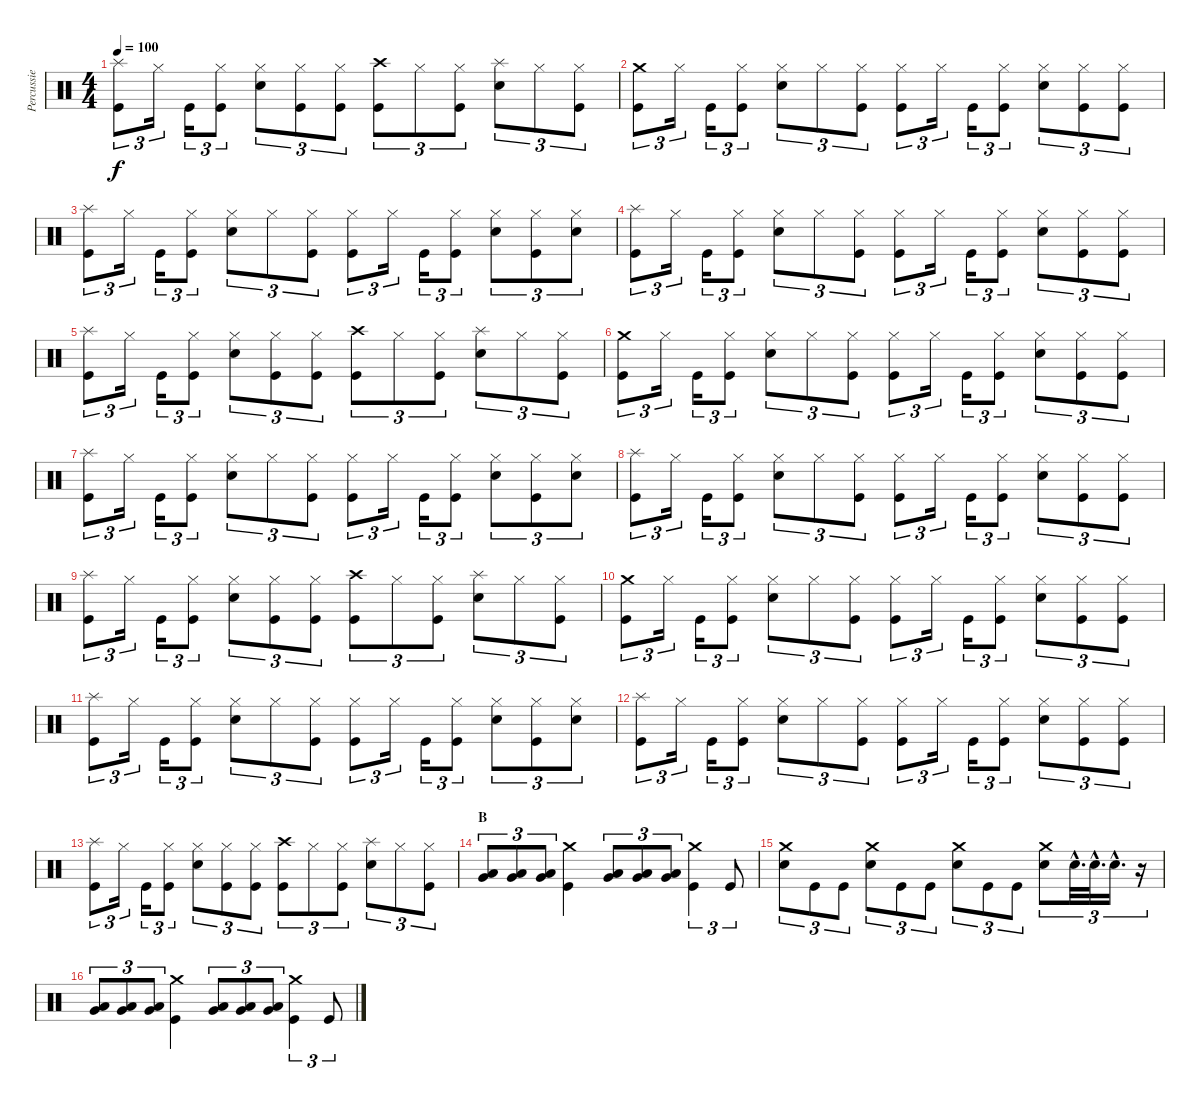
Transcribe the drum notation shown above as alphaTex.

\track ("Percussie" "Percussie") {instrument percussion}
\staff {score}
\articulation defaults
\ts (4 4)
\tempo 100
\clef neutral
\ks c
("Splash (hit)" "Kick (hit)").8{tu (3 2) dy f} "Hi-Hat (closed)".16{tu (3 2)} "Kick (hit)".16{tu (3 2)} ("Hi-Hat (closed)" "Kick (hit)").8{tu (3 2)} ("Hi-Hat (closed)" "Electric Snare (hit)").8{tu (3 2)} ("Hi-Hat (closed)" "Kick (hit)").8{tu (3 2)} ("Hi-Hat (closed)" "Kick (hit)").8{tu (3 2)} ("Crash high (hit)" "Kick (hit)").8{tu (3 2)} "Hi-Hat (closed)".8{tu (3 2)} ("Hi-Hat (closed)" "Kick (hit)").8{tu (3 2)} ("Splash (hit)" "Electric Snare (hit)").8{tu (3 2)} "Hi-Hat (closed)".8{tu (3 2)} ("Hi-Hat (closed)" "Kick (hit)").8{tu (3 2)} |
("Crash medium (hit)" "Kick (hit)").8{tu (3 2)} "Hi-Hat (closed)".16{tu (3 2)} "Kick (hit)".16{tu (3 2)} ("Hi-Hat (closed)" "Kick (hit)").8{tu (3 2)} ("Hi-Hat (closed)" "Electric Snare (hit)").8{tu (3 2)} "Hi-Hat (closed)".8{tu (3 2)} ("Hi-Hat (closed)" "Kick (hit)").8{tu (3 2)} ("Hi-Hat (closed)" "Kick (hit)").8{tu (3 2)} "Hi-Hat (closed)".16{tu (3 2)} "Kick (hit)".16{tu (3 2)} ("Hi-Hat (closed)" "Kick (hit)").8{tu (3 2)} ("Hi-Hat (closed)" "Electric Snare (hit)").8{tu (3 2)} ("Hi-Hat (closed)" "Kick (hit)").8{tu (3 2)} ("Hi-Hat (closed)" "Kick (hit)").8{tu (3 2)} |
("Splash (hit)" "Kick (hit)").8{tu (3 2)} "Hi-Hat (closed)".16{tu (3 2)} "Kick (hit)".16{tu (3 2)} ("Hi-Hat (closed)" "Kick (hit)").8{tu (3 2)} ("Hi-Hat (closed)" "Electric Snare (hit)").8{tu (3 2)} "Hi-Hat (closed)".8{tu (3 2)} ("Hi-Hat (closed)" "Kick (hit)").8{tu (3 2)} ("Hi-Hat (closed)" "Kick (hit)").8{tu (3 2)} "Hi-Hat (closed)".16{tu (3 2)} "Kick (hit)".16{tu (3 2)} ("Hi-Hat (closed)" "Kick (hit)").8{tu (3 2)} ("Hi-Hat (closed)" "Electric Snare (hit)").8{tu (3 2)} ("Hi-Hat (closed)" "Kick (hit)").8{tu (3 2)} ("Hi-Hat (closed)" "Electric Snare (hit)").8{tu (3 2)} |
("Splash (hit)" "Kick (hit)").8{tu (3 2)} "Hi-Hat (closed)".16{tu (3 2)} "Kick (hit)".16{tu (3 2)} ("Hi-Hat (closed)" "Kick (hit)").8{tu (3 2)} ("Hi-Hat (closed)" "Electric Snare (hit)").8{tu (3 2)} "Hi-Hat (closed)".8{tu (3 2)} ("Hi-Hat (closed)" "Kick (hit)").8{tu (3 2)} ("Hi-Hat (closed)" "Kick (hit)").8{tu (3 2)} "Hi-Hat (closed)".16{tu (3 2)} "Kick (hit)".16{tu (3 2)} ("Hi-Hat (closed)" "Kick (hit)").8{tu (3 2)} ("Hi-Hat (closed)" "Electric Snare (hit)").8{tu (3 2)} ("Hi-Hat (closed)" "Kick (hit)").8{tu (3 2)} ("Hi-Hat (closed)" "Kick (hit)").8{tu (3 2)} |
("Splash (hit)" "Kick (hit)").8{tu (3 2)} "Hi-Hat (closed)".16{tu (3 2)} "Kick (hit)".16{tu (3 2)} ("Hi-Hat (closed)" "Kick (hit)").8{tu (3 2)} ("Hi-Hat (closed)" "Electric Snare (hit)").8{tu (3 2)} ("Hi-Hat (closed)" "Kick (hit)").8{tu (3 2)} ("Hi-Hat (closed)" "Kick (hit)").8{tu (3 2)} ("Crash high (hit)" "Kick (hit)").8{tu (3 2)} "Hi-Hat (closed)".8{tu (3 2)} ("Hi-Hat (closed)" "Kick (hit)").8{tu (3 2)} ("Splash (hit)" "Electric Snare (hit)").8{tu (3 2)} "Hi-Hat (closed)".8{tu (3 2)} ("Hi-Hat (closed)" "Kick (hit)").8{tu (3 2)} |
("Crash medium (hit)" "Kick (hit)").8{tu (3 2)} "Hi-Hat (closed)".16{tu (3 2)} "Kick (hit)".16{tu (3 2)} ("Hi-Hat (closed)" "Kick (hit)").8{tu (3 2)} ("Hi-Hat (closed)" "Electric Snare (hit)").8{tu (3 2)} "Hi-Hat (closed)".8{tu (3 2)} ("Hi-Hat (closed)" "Kick (hit)").8{tu (3 2)} ("Hi-Hat (closed)" "Kick (hit)").8{tu (3 2)} "Hi-Hat (closed)".16{tu (3 2)} "Kick (hit)".16{tu (3 2)} ("Hi-Hat (closed)" "Kick (hit)").8{tu (3 2)} ("Hi-Hat (closed)" "Electric Snare (hit)").8{tu (3 2)} ("Hi-Hat (closed)" "Kick (hit)").8{tu (3 2)} ("Hi-Hat (closed)" "Kick (hit)").8{tu (3 2)} |
("Splash (hit)" "Kick (hit)").8{tu (3 2)} "Hi-Hat (closed)".16{tu (3 2)} "Kick (hit)".16{tu (3 2)} ("Hi-Hat (closed)" "Kick (hit)").8{tu (3 2)} ("Hi-Hat (closed)" "Electric Snare (hit)").8{tu (3 2)} "Hi-Hat (closed)".8{tu (3 2)} ("Hi-Hat (closed)" "Kick (hit)").8{tu (3 2)} ("Hi-Hat (closed)" "Kick (hit)").8{tu (3 2)} "Hi-Hat (closed)".16{tu (3 2)} "Kick (hit)".16{tu (3 2)} ("Hi-Hat (closed)" "Kick (hit)").8{tu (3 2)} ("Hi-Hat (closed)" "Electric Snare (hit)").8{tu (3 2)} ("Hi-Hat (closed)" "Kick (hit)").8{tu (3 2)} ("Hi-Hat (closed)" "Electric Snare (hit)").8{tu (3 2)} |
("Splash (hit)" "Kick (hit)").8{tu (3 2)} "Hi-Hat (closed)".16{tu (3 2)} "Kick (hit)".16{tu (3 2)} ("Hi-Hat (closed)" "Kick (hit)").8{tu (3 2)} ("Hi-Hat (closed)" "Electric Snare (hit)").8{tu (3 2)} "Hi-Hat (closed)".8{tu (3 2)} ("Hi-Hat (closed)" "Kick (hit)").8{tu (3 2)} ("Hi-Hat (closed)" "Kick (hit)").8{tu (3 2)} "Hi-Hat (closed)".16{tu (3 2)} "Kick (hit)".16{tu (3 2)} ("Hi-Hat (closed)" "Kick (hit)").8{tu (3 2)} ("Hi-Hat (closed)" "Electric Snare (hit)").8{tu (3 2)} ("Hi-Hat (closed)" "Kick (hit)").8{tu (3 2)} ("Hi-Hat (closed)" "Kick (hit)").8{tu (3 2)} |
("Splash (hit)" "Kick (hit)").8{tu (3 2)} "Hi-Hat (closed)".16{tu (3 2)} "Kick (hit)".16{tu (3 2)} ("Hi-Hat (closed)" "Kick (hit)").8{tu (3 2)} ("Hi-Hat (closed)" "Electric Snare (hit)").8{tu (3 2)} ("Hi-Hat (closed)" "Kick (hit)").8{tu (3 2)} ("Hi-Hat (closed)" "Kick (hit)").8{tu (3 2)} ("Crash high (hit)" "Kick (hit)").8{tu (3 2)} "Hi-Hat (closed)".8{tu (3 2)} ("Hi-Hat (closed)" "Kick (hit)").8{tu (3 2)} ("Splash (hit)" "Electric Snare (hit)").8{tu (3 2)} "Hi-Hat (closed)".8{tu (3 2)} ("Hi-Hat (closed)" "Kick (hit)").8{tu (3 2)} |
("Crash medium (hit)" "Kick (hit)").8{tu (3 2)} "Hi-Hat (closed)".16{tu (3 2)} "Kick (hit)".16{tu (3 2)} ("Hi-Hat (closed)" "Kick (hit)").8{tu (3 2)} ("Hi-Hat (closed)" "Electric Snare (hit)").8{tu (3 2)} "Hi-Hat (closed)".8{tu (3 2)} ("Hi-Hat (closed)" "Kick (hit)").8{tu (3 2)} ("Hi-Hat (closed)" "Kick (hit)").8{tu (3 2)} "Hi-Hat (closed)".16{tu (3 2)} "Kick (hit)".16{tu (3 2)} ("Hi-Hat (closed)" "Kick (hit)").8{tu (3 2)} ("Hi-Hat (closed)" "Electric Snare (hit)").8{tu (3 2)} ("Hi-Hat (closed)" "Kick (hit)").8{tu (3 2)} ("Hi-Hat (closed)" "Kick (hit)").8{tu (3 2)} |
("Splash (hit)" "Kick (hit)").8{tu (3 2)} "Hi-Hat (closed)".16{tu (3 2)} "Kick (hit)".16{tu (3 2)} ("Hi-Hat (closed)" "Kick (hit)").8{tu (3 2)} ("Hi-Hat (closed)" "Electric Snare (hit)").8{tu (3 2)} "Hi-Hat (closed)".8{tu (3 2)} ("Hi-Hat (closed)" "Kick (hit)").8{tu (3 2)} ("Hi-Hat (closed)" "Kick (hit)").8{tu (3 2)} "Hi-Hat (closed)".16{tu (3 2)} "Kick (hit)".16{tu (3 2)} ("Hi-Hat (closed)" "Kick (hit)").8{tu (3 2)} ("Hi-Hat (closed)" "Electric Snare (hit)").8{tu (3 2)} ("Hi-Hat (closed)" "Kick (hit)").8{tu (3 2)} ("Hi-Hat (closed)" "Electric Snare (hit)").8{tu (3 2)} |
("Splash (hit)" "Kick (hit)").8{tu (3 2)} "Hi-Hat (closed)".16{tu (3 2)} "Kick (hit)".16{tu (3 2)} ("Hi-Hat (closed)" "Kick (hit)").8{tu (3 2)} ("Hi-Hat (closed)" "Electric Snare (hit)").8{tu (3 2)} "Hi-Hat (closed)".8{tu (3 2)} ("Hi-Hat (closed)" "Kick (hit)").8{tu (3 2)} ("Hi-Hat (closed)" "Kick (hit)").8{tu (3 2)} "Hi-Hat (closed)".16{tu (3 2)} "Kick (hit)".16{tu (3 2)} ("Hi-Hat (closed)" "Kick (hit)").8{tu (3 2)} ("Hi-Hat (closed)" "Electric Snare (hit)").8{tu (3 2)} ("Hi-Hat (closed)" "Kick (hit)").8{tu (3 2)} ("Hi-Hat (closed)" "Kick (hit)").8{tu (3 2)} |
("Splash (hit)" "Kick (hit)").8{tu (3 2)} "Hi-Hat (closed)".16{tu (3 2)} "Kick (hit)".16{tu (3 2)} ("Hi-Hat (closed)" "Kick (hit)").8{tu (3 2)} ("Hi-Hat (closed)" "Electric Snare (hit)").8{tu (3 2)} ("Hi-Hat (closed)" "Kick (hit)").8{tu (3 2)} ("Hi-Hat (closed)" "Kick (hit)").8{tu (3 2)} ("Crash high (hit)" "Kick (hit)").8{tu (3 2)} "Hi-Hat (closed)".8{tu (3 2)} ("Hi-Hat (closed)" "Kick (hit)").8{tu (3 2)} ("Splash (hit)" "Electric Snare (hit)").8{tu (3 2)} "Hi-Hat (closed)".8{tu (3 2)} ("Hi-Hat (closed)" "Kick (hit)").8{tu (3 2)} |
\section ("" "B")
("Very Low Tom (hit)" "Low Floor Tom (hit)").8{tu (3 2)} ("Very Low Tom (hit)" "Low Floor Tom (hit)").8{tu (3 2)} ("Very Low Tom (hit)" "Low Floor Tom (hit)").8{tu (3 2)} ("Crash medium (hit)" "Kick (hit)").4 ("Very Low Tom (hit)" "Low Floor Tom (hit)").8{tu (3 2)} ("Very Low Tom (hit)" "Low Floor Tom (hit)").8{tu (3 2)} ("Very Low Tom (hit)" "Low Floor Tom (hit)").8{tu (3 2)} ("Crash medium (hit)" "Kick (hit)").4{tu (3 2)} "Kick (hit)".8{tu (3 2)} |
("Crash medium (hit)" "Electric Snare (hit)").8{tu (3 2)} "Kick (hit)".8{tu (3 2)} "Kick (hit)".8{tu (3 2)} ("Crash medium (hit)" "Electric Snare (hit)").8{tu (3 2)} "Kick (hit)".8{tu (3 2)} "Kick (hit)".8{tu (3 2)} ("Crash medium (hit)" "Electric Snare (hit)").8{tu (3 2)} "Kick (hit)".8{tu (3 2)} "Kick (hit)".8{tu (3 2)} ("Crash medium (hit)" "Electric Snare (hit)").8{tu (3 2)} "Electric Snare (hit)"{hac}.32{d tu (3 2)} "Electric Snare (hit)"{hac}.32{d tu (3 2)} "Electric Snare (hit)"{hac}.16{d tu (3 2)} r.16{tu (3 2)} |
("Very Low Tom (hit)" "Low Floor Tom (hit)").8{tu (3 2)} ("Very Low Tom (hit)" "Low Floor Tom (hit)").8{tu (3 2)} ("Very Low Tom (hit)" "Low Floor Tom (hit)").8{tu (3 2)} ("Crash medium (hit)" "Kick (hit)").4 ("Very Low Tom (hit)" "Low Floor Tom (hit)").8{tu (3 2)} ("Very Low Tom (hit)" "Low Floor Tom (hit)").8{tu (3 2)} ("Very Low Tom (hit)" "Low Floor Tom (hit)").8{tu (3 2)} ("Crash medium (hit)" "Kick (hit)").4{tu (3 2)} "Kick (hit)".8{tu (3 2)}
